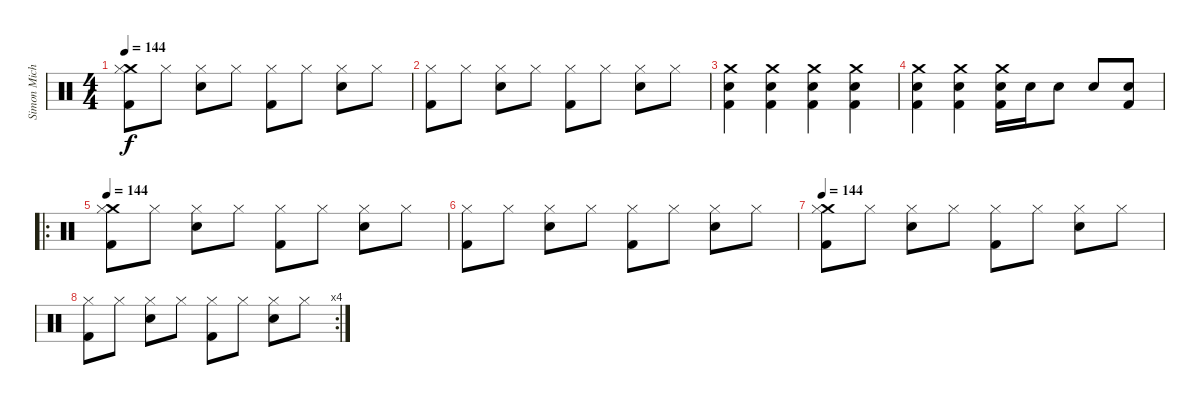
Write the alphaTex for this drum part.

\track ("Simon Michael" "Simon Mich") {instrument percussion}
\staff {score}
\articulation defaults
\ts (4 4)
\tempo 144
\clef neutral
\ks c
("Crash medium (hit)" "Hi-Hat (closed)" "Kick (hit) 2").8{dy f} "Hi-Hat (closed)".8 ("Hi-Hat (closed)" "Snare (hit) 2").8 "Hi-Hat (closed)".8 ("Hi-Hat (closed)" "Kick (hit) 2").8 "Hi-Hat (closed)".8 ("Hi-Hat (closed)" "Snare (hit) 2").8 "Hi-Hat (closed)".8 |
("Hi-Hat (closed)" "Kick (hit) 2").8 "Hi-Hat (closed)".8 ("Hi-Hat (closed)" "Snare (hit) 2").8 "Hi-Hat (closed)".8 ("Hi-Hat (closed)" "Kick (hit) 2").8 "Hi-Hat (closed)".8 ("Hi-Hat (closed)" "Snare (hit) 2").8 "Hi-Hat (closed)".8 |
("Kick (hit) 2" "Crash medium (hit)" "Snare (hit) 2").4 ("Kick (hit) 2" "Crash medium (hit)" "Snare (hit) 2").4 ("Kick (hit) 2" "Crash medium (hit)" "Snare (hit) 2").4 ("Kick (hit) 2" "Crash medium (hit)" "Snare (hit) 2").4 |
("Kick (hit) 2" "Crash medium (hit)" "Snare (hit) 2").4 ("Kick (hit) 2" "Crash medium (hit)" "Snare (hit) 2").4 ("Kick (hit) 2" "Crash medium (hit)" "Snare (hit) 2").16 "Snare (hit) 2".16 "Snare (hit) 2".8 "Snare (hit) 2".8 ("Kick (hit) 2" "Snare (hit) 2").8 |
\ro
\tempo 144
("Crash medium (hit)" "Hi-Hat (closed)" "Kick (hit) 2").8 "Hi-Hat (closed)".8 ("Hi-Hat (closed)" "Snare (hit) 2").8 "Hi-Hat (closed)".8 ("Hi-Hat (closed)" "Kick (hit) 2").8 "Hi-Hat (closed)".8 ("Hi-Hat (closed)" "Snare (hit) 2").8 "Hi-Hat (closed)".8 |
("Hi-Hat (closed)" "Kick (hit) 2").8 "Hi-Hat (closed)".8 ("Hi-Hat (closed)" "Snare (hit) 2").8 "Hi-Hat (closed)".8 ("Hi-Hat (closed)" "Kick (hit) 2").8 "Hi-Hat (closed)".8 ("Hi-Hat (closed)" "Snare (hit) 2").8 "Hi-Hat (closed)".8 |
\tempo 144
("Crash medium (hit)" "Hi-Hat (closed)" "Kick (hit) 2").8 "Hi-Hat (closed)".8 ("Hi-Hat (closed)" "Snare (hit) 2").8 "Hi-Hat (closed)".8 ("Hi-Hat (closed)" "Kick (hit) 2").8 "Hi-Hat (closed)".8 ("Hi-Hat (closed)" "Snare (hit) 2").8 "Hi-Hat (closed)".8 |
\rc 4
("Hi-Hat (closed)" "Kick (hit) 2").8 "Hi-Hat (closed)".8 ("Hi-Hat (closed)" "Snare (hit) 2").8 "Hi-Hat (closed)".8 ("Hi-Hat (closed)" "Kick (hit) 2").8 "Hi-Hat (closed)".8 ("Hi-Hat (closed)" "Snare (hit) 2").8 "Hi-Hat (closed)".8
